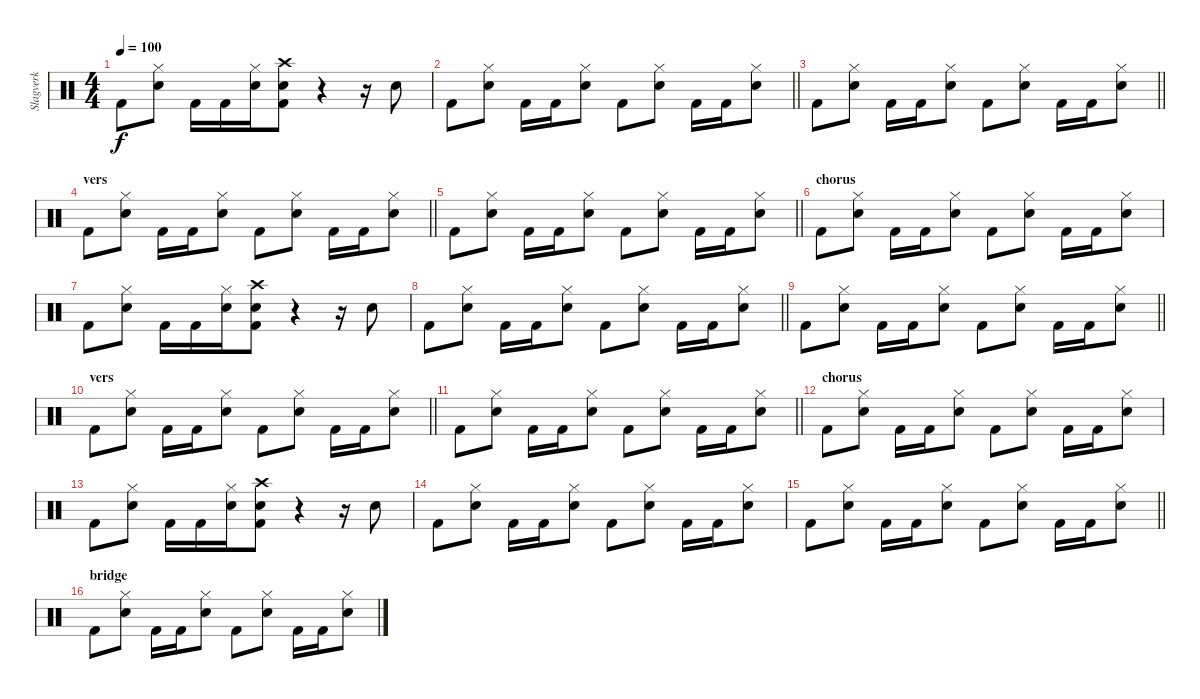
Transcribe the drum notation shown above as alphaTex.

\track ("Slagverk" "Slagverk") {instrument percussion}
\staff {score}
\articulation defaults
\ts (4 4)
\tempo 100
\clef neutral
\ks c "Kick (hit) 2".8{dy f}
("Snare (hit) 2" "Hi-Hat (closed)").8 "Kick (hit) 2".16 "Kick (hit) 2".16 ("Snare (hit) 2" "Hi-Hat (closed)").16 ("Kick (hit) 2" "Snare (hit) 2" "Crash high (hit)").8 r.4 r.16 "Snare (hit) 2".8 |
\barLineRight lightlight "Kick (hit) 2".8
("Snare (hit) 2" "Hi-Hat (closed)").8 "Kick (hit) 2".16 "Kick (hit) 2".16 ("Snare (hit) 2" "Hi-Hat (closed)").8 "Kick (hit) 2".8 ("Snare (hit) 2" "Hi-Hat (closed)").8 "Kick (hit) 2".16 "Kick (hit) 2".16 ("Snare (hit) 2" "Hi-Hat (closed)").8 |
\barLineRight lightlight "Kick (hit) 2".8
("Snare (hit) 2" "Hi-Hat (closed)").8 "Kick (hit) 2".16 "Kick (hit) 2".16 ("Snare (hit) 2" "Hi-Hat (closed)").8 "Kick (hit) 2".8 ("Snare (hit) 2" "Hi-Hat (closed)").8 "Kick (hit) 2".16 "Kick (hit) 2".16 ("Snare (hit) 2" "Hi-Hat (closed)").8 |
\section ("" "vers")
\barLineRight lightlight "Kick (hit) 2".8
("Snare (hit) 2" "Hi-Hat (closed)").8 "Kick (hit) 2".16 "Kick (hit) 2".16 ("Snare (hit) 2" "Hi-Hat (closed)").8 "Kick (hit) 2".8 ("Snare (hit) 2" "Hi-Hat (closed)").8 "Kick (hit) 2".16 "Kick (hit) 2".16 ("Snare (hit) 2" "Hi-Hat (closed)").8 |
\barLineRight lightlight "Kick (hit) 2".8
("Snare (hit) 2" "Hi-Hat (closed)").8 "Kick (hit) 2".16 "Kick (hit) 2".16 ("Snare (hit) 2" "Hi-Hat (closed)").8 "Kick (hit) 2".8 ("Snare (hit) 2" "Hi-Hat (closed)").8 "Kick (hit) 2".16 "Kick (hit) 2".16 ("Snare (hit) 2" "Hi-Hat (closed)").8 |
\section ("" "chorus")
"Kick (hit) 2".8 ("Snare (hit) 2" "Hi-Hat (closed)").8 "Kick (hit) 2".16 "Kick (hit) 2".16 ("Snare (hit) 2" "Hi-Hat (closed)").8 "Kick (hit) 2".8 ("Snare (hit) 2" "Hi-Hat (closed)").8 "Kick (hit) 2".16 "Kick (hit) 2".16 ("Snare (hit) 2" "Hi-Hat (closed)").8 |
"Kick (hit) 2".8 ("Snare (hit) 2" "Hi-Hat (closed)").8 "Kick (hit) 2".16 "Kick (hit) 2".16 ("Snare (hit) 2" "Hi-Hat (closed)").16 ("Kick (hit) 2" "Snare (hit) 2" "Crash high (hit)").8 r.4 r.16 "Snare (hit) 2".8 |
\barLineRight lightlight "Kick (hit) 2".8
("Snare (hit) 2" "Hi-Hat (closed)").8 "Kick (hit) 2".16 "Kick (hit) 2".16 ("Snare (hit) 2" "Hi-Hat (closed)").8 "Kick (hit) 2".8 ("Snare (hit) 2" "Hi-Hat (closed)").8 "Kick (hit) 2".16 "Kick (hit) 2".16 ("Snare (hit) 2" "Hi-Hat (closed)").8 |
\barLineRight lightlight "Kick (hit) 2".8
("Snare (hit) 2" "Hi-Hat (closed)").8 "Kick (hit) 2".16 "Kick (hit) 2".16 ("Snare (hit) 2" "Hi-Hat (closed)").8 "Kick (hit) 2".8 ("Snare (hit) 2" "Hi-Hat (closed)").8 "Kick (hit) 2".16 "Kick (hit) 2".16 ("Snare (hit) 2" "Hi-Hat (closed)").8 |
\section ("" "vers")
\barLineRight lightlight "Kick (hit) 2".8
("Snare (hit) 2" "Hi-Hat (closed)").8 "Kick (hit) 2".16 "Kick (hit) 2".16 ("Snare (hit) 2" "Hi-Hat (closed)").8 "Kick (hit) 2".8 ("Snare (hit) 2" "Hi-Hat (closed)").8 "Kick (hit) 2".16 "Kick (hit) 2".16 ("Snare (hit) 2" "Hi-Hat (closed)").8 |
\barLineRight lightlight "Kick (hit) 2".8
("Snare (hit) 2" "Hi-Hat (closed)").8 "Kick (hit) 2".16 "Kick (hit) 2".16 ("Snare (hit) 2" "Hi-Hat (closed)").8 "Kick (hit) 2".8 ("Snare (hit) 2" "Hi-Hat (closed)").8 "Kick (hit) 2".16 "Kick (hit) 2".16 ("Snare (hit) 2" "Hi-Hat (closed)").8 |
\section ("" "chorus")
"Kick (hit) 2".8 ("Snare (hit) 2" "Hi-Hat (closed)").8 "Kick (hit) 2".16 "Kick (hit) 2".16 ("Snare (hit) 2" "Hi-Hat (closed)").8 "Kick (hit) 2".8 ("Snare (hit) 2" "Hi-Hat (closed)").8 "Kick (hit) 2".16 "Kick (hit) 2".16 ("Snare (hit) 2" "Hi-Hat (closed)").8 |
"Kick (hit) 2".8 ("Snare (hit) 2" "Hi-Hat (closed)").8 "Kick (hit) 2".16 "Kick (hit) 2".16 ("Snare (hit) 2" "Hi-Hat (closed)").16 ("Kick (hit) 2" "Snare (hit) 2" "Crash high (hit)").8 r.4 r.16 "Snare (hit) 2".8 |
"Kick (hit) 2".8 ("Snare (hit) 2" "Hi-Hat (closed)").8 "Kick (hit) 2".16 "Kick (hit) 2".16 ("Snare (hit) 2" "Hi-Hat (closed)").8 "Kick (hit) 2".8 ("Snare (hit) 2" "Hi-Hat (closed)").8 "Kick (hit) 2".16 "Kick (hit) 2".16 ("Snare (hit) 2" "Hi-Hat (closed)").8 |
\barLineRight lightlight "Kick (hit) 2".8
("Snare (hit) 2" "Hi-Hat (closed)").8 "Kick (hit) 2".16 "Kick (hit) 2".16 ("Snare (hit) 2" "Hi-Hat (closed)").8 "Kick (hit) 2".8 ("Snare (hit) 2" "Hi-Hat (closed)").8 "Kick (hit) 2".16 "Kick (hit) 2".16 ("Snare (hit) 2" "Hi-Hat (closed)").8 |
\section ("" "bridge")
"Kick (hit) 2".8 ("Snare (hit) 2" "Hi-Hat (closed)").8 "Kick (hit) 2".16 "Kick (hit) 2".16 ("Snare (hit) 2" "Hi-Hat (closed)").8 "Kick (hit) 2".8 ("Snare (hit) 2" "Hi-Hat (closed)").8 "Kick (hit) 2".16 "Kick (hit) 2".16 ("Snare (hit) 2" "Hi-Hat (closed)").8
